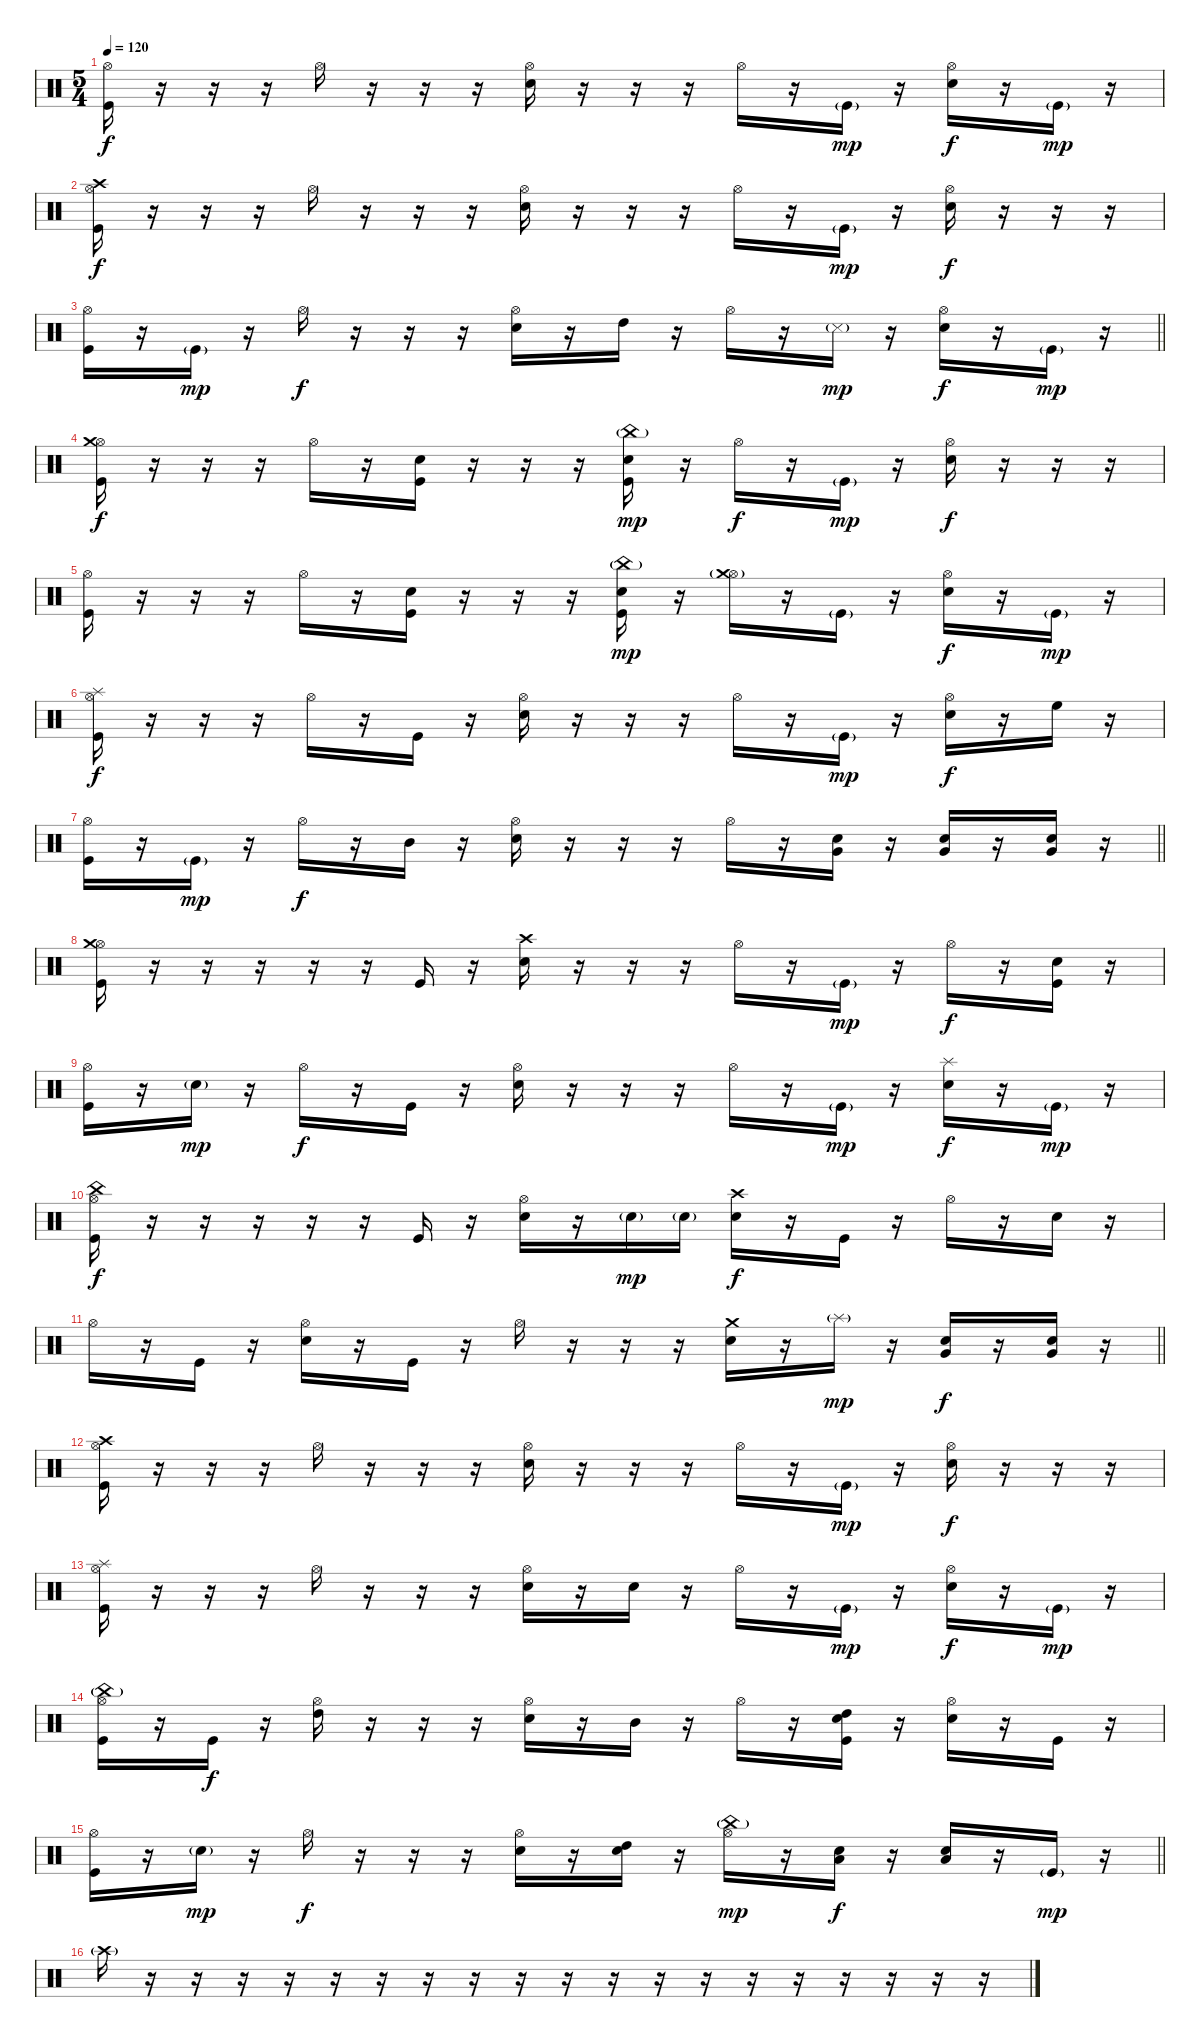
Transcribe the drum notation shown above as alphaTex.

\track "" {instrument percussion}
\staff {score}
\articulation defaults
\ts (5 4)
\tempo 120
\clef neutral
\ks c
("Kick (hit)" "Hi-Hat (open)").16{dy f} r.16 r.16 r.16 "Hi-Hat (open)".16 r.16 r.16 r.16 ("Snare (hit) 2" "Hi-Hat (open)").16 r.16 r.16 r.16 "Hi-Hat (open)".16 r.16 "Kick (hit)"{g}.16{dy mp} r.16 ("Snare (hit) 2" "Hi-Hat (open)").16{dy f} r.16 "Kick (hit)"{g}.16{dy mp} r.16 |
("Kick (hit)" "Hi-Hat (open)" "Crash high (hit)").16{dy f} r.16 r.16 r.16 "Hi-Hat (open)".16 r.16 r.16 r.16 ("Snare (hit) 2" "Hi-Hat (open)").16 r.16 r.16 r.16 "Hi-Hat (open)".16 r.16 "Kick (hit)"{g}.16{dy mp} r.16 ("Snare (hit) 2" "Hi-Hat (open)").16{dy f} r.16 r.16 r.16 |
\barLineRight lightlight
("Kick (hit)" "Hi-Hat (open)").16 r.16 "Kick (hit)"{g}.16{dy mp} r.16 "Hi-Hat (open)".16{dy f} r.16 r.16 r.16 ("Snare (hit) 2" "Hi-Hat (open)").16 r.16 "High Tom (hit)".16 r.16 "Hi-Hat (open)".16 r.16 "Snare (side stick) 3"{g}.16{dy mp} r.16 ("Snare (hit) 2" "Hi-Hat (open)").16{dy f} r.16 "Kick (hit)"{g}.16{dy mp} r.16 |
("Kick (hit)" "Hi-Hat (open)" "Crash medium (hit)").16{dy f} r.16 r.16 r.16 "Hi-Hat (open)".16 r.16 ("Kick (hit)" "Snare (hit) 2").16 r.16 r.16 r.16 ("Kick (hit)" "Snare (hit) 2" "China (hit)"{g}).16{dy mp} r.16 "Hi-Hat (open)".16{dy f} r.16 "Kick (hit)"{g}.16{dy mp} r.16 ("Snare (hit) 2" "Hi-Hat (open)").16{dy f} r.16 r.16 r.16 |
("Kick (hit)" "Hi-Hat (open)").16 r.16 r.16 r.16 "Hi-Hat (open)".16 r.16 ("Kick (hit)" "Snare (hit) 2").16 r.16 r.16 r.16 ("Kick (hit)" "Snare (hit) 2" "China (hit)"{g}).16{dy mp} r.16 ("Hi-Hat (open)" "Crash medium (hit)"{g}).16 r.16 "Kick (hit)"{g}.16 r.16 ("Snare (hit) 2" "Hi-Hat (open)").16{dy f} r.16 "Kick (hit)"{g}.16{dy mp} r.16 |
("Kick (hit)" "Hi-Hat (open)" "Splash (hit)").16{dy f} r.16 r.16 r.16 "Hi-Hat (open)".16 r.16 "Kick (hit)".16 r.16 ("Snare (hit) 2" "Hi-Hat (open)").16 r.16 r.16 r.16 "Hi-Hat (open)".16 r.16 "Kick (hit)"{g}.16{dy mp} r.16 ("Snare (hit) 2" "Hi-Hat (open)").16{dy f} r.16 "High Floor Tom (hit)".16 r.16 |
\barLineRight lightlight
("Kick (hit)" "Hi-Hat (open)").16 r.16 "Kick (hit)"{g}.16{dy mp} r.16 "Hi-Hat (open)".16{dy f} r.16 "Mid Tom (hit)".16 r.16 ("Snare (hit) 2" "Hi-Hat (open)").16 r.16 r.16 r.16 "Hi-Hat (open)".16 r.16 ("Very Low Tom (hit)" "Snare (hit) 2").16 r.16 ("Very Low Tom (hit)" "Snare (hit) 2").16 r.16 ("Very Low Tom (hit)" "Snare (hit) 2").16 r.16 |
("Kick (hit)" "Hi-Hat (open)" "Crash medium (hit)").16 r.16 r.16 r.16 r.16 r.16 "Kick (hit)".16 r.16 ("Snare (hit) 2" "Crash high (hit)").16 r.16 r.16 r.16 "Hi-Hat (open)".16 r.16 "Kick (hit)"{g}.16{dy mp} r.16 "Hi-Hat (open)".16{dy f} r.16 ("Kick (hit)" "Snare (hit) 2").16 r.16 |
("Kick (hit)" "Hi-Hat (open)").16 r.16 "Snare (hit) 2"{g}.16{dy mp} r.16 "Hi-Hat (open)".16{dy f} r.16 "Kick (hit)".16 r.16 ("Snare (hit) 2" "Hi-Hat (open)").16 r.16 r.16 r.16 "Hi-Hat (open)".16 r.16 "Kick (hit)"{g}.16{dy mp} r.16 ("Snare (hit) 2" "Splash (hit)").16{dy f} r.16 "Kick (hit)"{g}.16{dy mp} r.16 |
("Kick (hit)" "Hi-Hat (open)" "China (hit)").16{dy f} r.16 r.16 r.16 r.16 r.16 "Kick (hit)".16 r.16 ("Snare (hit) 2" "Hi-Hat (open)").16 r.16 "Snare (hit) 2"{g}.16{dy mp} "Snare (hit) 2"{g}.16 ("Snare (hit) 2" "Crash high (hit)").16{dy f} r.16 "Kick (hit)".16 r.16 "Hi-Hat (open)".16 r.16 "Snare (hit) 2".16 r.16 |
\barLineRight lightlight "Hi-Hat (open)".16
r.16 "Kick (hit)".16 r.16 ("Snare (hit) 2" "Hi-Hat (open)").16 r.16 "Kick (hit)".16 r.16 "Hi-Hat (open)".16 r.16 r.16 r.16 ("Snare (hit) 2" "Crash medium (hit)").16 r.16 "Splash (hit)"{g}.16{dy mp} r.16 ("Snare (hit) 2" "Very Low Tom (hit)").16{dy f} r.16 ("Snare (hit) 2" "Very Low Tom (hit)").16 r.16 |
("Kick (hit)" "Hi-Hat (open)" "Crash high (hit)").16 r.16 r.16 r.16 "Hi-Hat (open)".16 r.16 r.16 r.16 ("Snare (hit) 2" "Hi-Hat (open)").16 r.16 r.16 r.16 "Hi-Hat (open)".16 r.16 "Kick (hit)"{g}.16{dy mp} r.16 ("Snare (hit) 2" "Hi-Hat (open)").16{dy f} r.16 r.16 r.16 |
("Kick (hit)" "Hi-Hat (open)" "Splash (hit)").16 r.16 r.16 r.16 "Hi-Hat (open)".16 r.16 r.16 r.16 ("Snare (hit) 2" "Hi-Hat (open)").16 r.16 "Snare (hit) 2".16 r.16 "Hi-Hat (open)".16 r.16 "Kick (hit)"{g}.16{dy mp} r.16 ("Snare (hit) 2" "Hi-Hat (open)").16{dy f} r.16 "Kick (hit)"{g}.16{dy mp} r.16 |
("Kick (hit)" "Hi-Hat (open)" "China (hit)"{g}).16 r.16 "Kick (hit)".16{dy f} r.16 ("High Tom (hit)" "Hi-Hat (open)").16 r.16 r.16 r.16 ("Snare (hit) 2" "Hi-Hat (open)").16 r.16 "Mid Tom (hit)".16 r.16 "Hi-Hat (open)".16 r.16 ("Kick (hit)" "Snare (hit) 2" "High Tom (hit)").16 r.16 ("Snare (hit) 2" "Hi-Hat (open)").16 r.16 "Kick (hit)".16 r.16 |
\barLineRight lightlight
("Kick (hit)" "Hi-Hat (open)").16 r.16 "Snare (hit) 2"{g}.16{dy mp} r.16 "Hi-Hat (open)".16{dy f} r.16 r.16 r.16 ("Snare (hit) 2" "Hi-Hat (open)").16 r.16 ("Snare (hit) 2" "High Tom (hit)").16 r.16 ("Hi-Hat (open)" "China (hit)"{g}).16{dy mp} r.16 ("Snare (hit) 2" "Low Tom (hit)").16{dy f} r.16 ("Snare (hit) 2" "Low Tom (hit)").16 r.16 "Kick (hit)"{g}.16{dy mp} r.16 |
"Crash high (hit)"{g}.16 r.16 r.16 r.16 r.16 r.16 r.16 r.16 r.16 r.16 r.16 r.16 r.16 r.16 r.16 r.16 r.16 r.16 r.16 r.16
